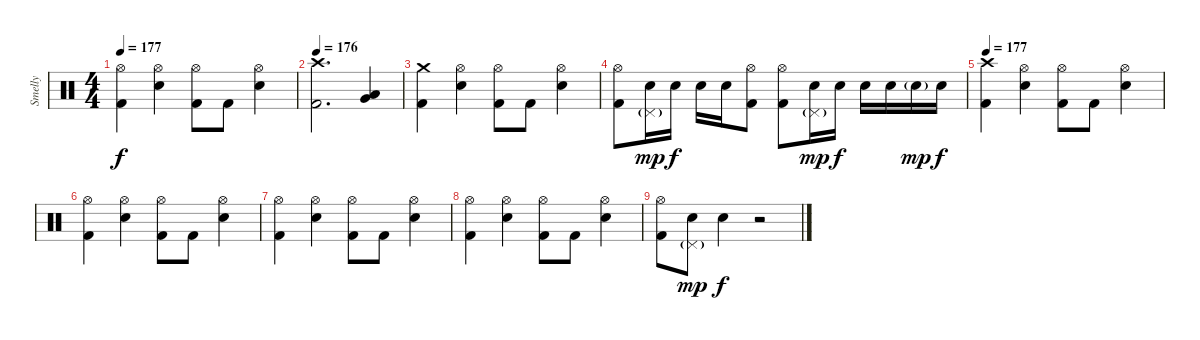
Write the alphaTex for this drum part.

\track ("Smelly" "Smelly") {instrument percussion}
\staff {score}
\articulation defaults
\ts (4 4)
\tempo 177
\clef neutral
\ks c
("Hi-Hat (open)" "Kick (hit) 2").4{dy f} ("Hi-Hat (open)" "Electric Snare (hit)").4 ("Hi-Hat (open)" "Kick (hit) 2").8 "Kick (hit) 2".8 ("Hi-Hat (open)" "Electric Snare (hit)").4 |
\tempo 176
("Crash high (hit)" "Kick (hit) 2").2{d} ("Very Low Tom (hit)" "Low Floor Tom (hit)").4 |
("Crash medium (hit)" "Kick (hit) 2").4 ("Hi-Hat (open)" "Electric Snare (hit)").4 ("Hi-Hat (open)" "Kick (hit) 2").8 "Kick (hit) 2".8 ("Hi-Hat (open)" "Electric Snare (hit)").4 |
("Hi-Hat (open)" "Kick (hit) 2").8 ("Pedal Hi-Hat (hit)"{g} "Electric Snare (hit)").16{dy mp} "Electric Snare (hit)".16{dy f} "Electric Snare (hit)".16 "Electric Snare (hit)".16 ("Hi-Hat (open)" "Kick (hit) 2").8 ("Hi-Hat (open)" "Kick (hit) 2").8 ("Pedal Hi-Hat (hit)"{g} "Electric Snare (hit)").16{dy mp} "Electric Snare (hit)".16{dy f} "Electric Snare (hit)".16 "Electric Snare (hit)".16 "Electric Snare (hit)"{g}.16{dy mp} "Electric Snare (hit)".16{dy f} |
\tempo 177
("Crash high (hit)" "Kick (hit) 2").4 ("Hi-Hat (open)" "Electric Snare (hit)").4 ("Hi-Hat (open)" "Kick (hit) 2").8 "Kick (hit) 2".8 ("Hi-Hat (open)" "Electric Snare (hit)").4 |
("Hi-Hat (open)" "Kick (hit) 2").4 ("Hi-Hat (open)" "Electric Snare (hit)").4 ("Hi-Hat (open)" "Kick (hit) 2").8 "Kick (hit) 2".8 ("Hi-Hat (open)" "Electric Snare (hit)").4 |
("Hi-Hat (open)" "Kick (hit) 2").4 ("Hi-Hat (open)" "Electric Snare (hit)").4 ("Hi-Hat (open)" "Kick (hit) 2").8 "Kick (hit) 2".8 ("Hi-Hat (open)" "Electric Snare (hit)").4 |
("Hi-Hat (open)" "Kick (hit) 2").4 ("Hi-Hat (open)" "Electric Snare (hit)").4 ("Hi-Hat (open)" "Kick (hit) 2").8 "Kick (hit) 2".8 ("Hi-Hat (open)" "Electric Snare (hit)").4 |
("Hi-Hat (open)" "Kick (hit) 2").8 ("Pedal Hi-Hat (hit)"{g} "Electric Snare (hit)").8{dy mp} "Electric Snare (hit)".4{dy f} r.2
